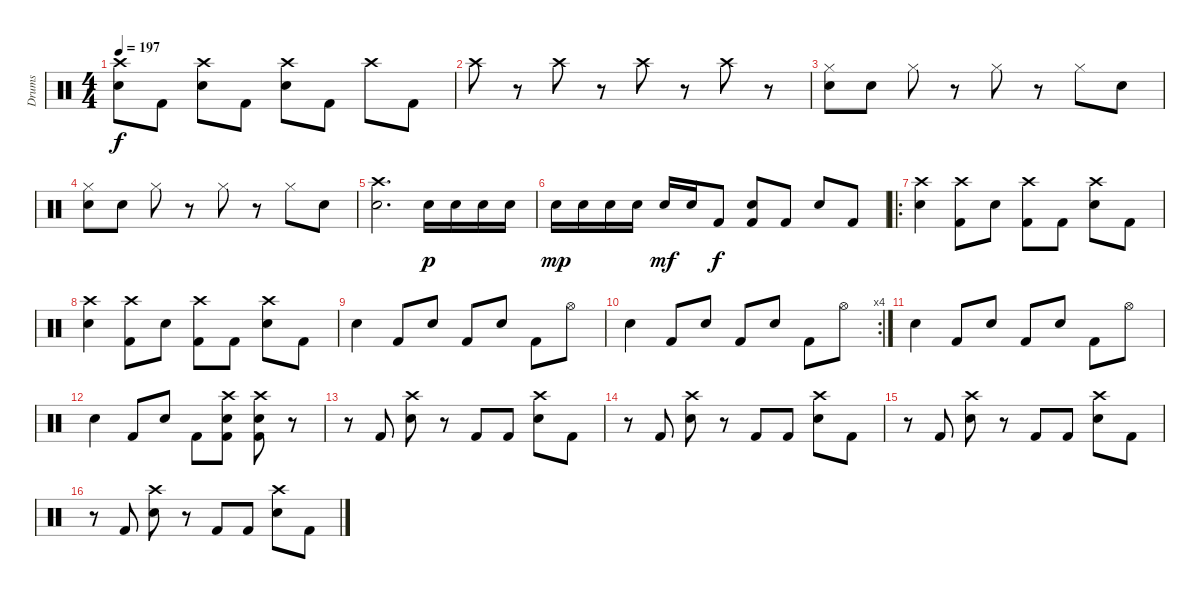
\track ("Drums" "Drums") {instrument percussion}
\staff {score}
\articulation defaults
\ts (4 4)
\tempo 197
\clef neutral
\ks c
("Crash high (hit)" "Electric Snare (hit)").8{dy f} "Kick (hit) 2".8 ("Crash high (hit)" "Electric Snare (hit)").8 "Kick (hit) 2".8 ("Crash high (hit)" "Electric Snare (hit)").8 "Kick (hit) 2".8 "Crash high (hit)".8 "Kick (hit) 2".8 |
"Crash high (hit)".8 r.8 "Crash high (hit)".8 r.8 "Crash high (hit)".8 r.8 "Crash high (hit)".8 r.8 |
("Hi-Hat (closed)" "Electric Snare (hit)").8 "Electric Snare (hit)".8 "Hi-Hat (closed)".8 r.8 "Hi-Hat (closed)".8 r.8 "Hi-Hat (closed)".8 "Electric Snare (hit)".8 |
("Hi-Hat (closed)" "Electric Snare (hit)").8 "Electric Snare (hit)".8 "Hi-Hat (closed)".8 r.8 "Hi-Hat (closed)".8 r.8 "Hi-Hat (closed)".8 "Electric Snare (hit)".8 |
("Crash high (hit)" "Electric Snare (hit)").2{d} "Electric Snare (hit)".16{dy p} "Electric Snare (hit)".16 "Electric Snare (hit)".16 "Electric Snare (hit)".16 |
"Electric Snare (hit)".16{dy mp} "Electric Snare (hit)".16 "Electric Snare (hit)".16 "Electric Snare (hit)".16 "Electric Snare (hit)".16{dy mf} "Electric Snare (hit)".16 "Kick (hit) 2".8{dy f} ("Electric Snare (hit)" "Kick (hit) 2").8 "Kick (hit) 2".8 "Electric Snare (hit)".8 "Kick (hit) 2".8 |
\ro
("Crash high (hit)" "Electric Snare (hit)").4 ("Crash high (hit)" "Kick (hit) 2").8 "Electric Snare (hit)".8 ("Crash high (hit)" "Kick (hit) 2").8 "Kick (hit) 2".8 ("Crash high (hit)" "Electric Snare (hit)").8 "Kick (hit) 2".8 |
("Crash high (hit)" "Electric Snare (hit)").4 ("Crash high (hit)" "Kick (hit) 2").8 "Electric Snare (hit)".8 ("Crash high (hit)" "Kick (hit) 2").8 "Kick (hit) 2".8 ("Crash high (hit)" "Electric Snare (hit)").8 "Kick (hit) 2".8 |
"Electric Snare (hit)".4 "Kick (hit) 2".8 "Electric Snare (hit)".8 "Kick (hit) 2".8 "Electric Snare (hit)".8 "Kick (hit) 2".8 "Hi-Hat (open)".8 |
\rc 4 "Electric Snare (hit)".4 "Kick (hit) 2".8 "Electric Snare (hit)".8 "Kick (hit) 2".8 "Electric Snare (hit)".8 "Kick (hit) 2".8 "Hi-Hat (open)".8
|
"Electric Snare (hit)".4 "Kick (hit) 2".8 "Electric Snare (hit)".8 "Kick (hit) 2".8 "Electric Snare (hit)".8 "Kick (hit) 2".8 "Hi-Hat (open)".8 |
"Electric Snare (hit)".4 "Kick (hit) 2".8 "Electric Snare (hit)".8 "Kick (hit) 2".8 ("Crash high (hit)" "Electric Snare (hit)" "Kick (hit) 2").8 ("Crash high (hit)" "Electric Snare (hit)" "Kick (hit) 2").8 r.8 |
r.8 "Kick (hit) 2".8 ("Crash high (hit)" "Electric Snare (hit)").8 r.8 "Kick (hit) 2".8 "Kick (hit) 2".8 ("Crash high (hit)" "Electric Snare (hit)").8 "Kick (hit) 2".8 |
r.8 "Kick (hit) 2".8 ("Crash high (hit)" "Electric Snare (hit)").8 r.8 "Kick (hit) 2".8 "Kick (hit) 2".8 ("Crash high (hit)" "Electric Snare (hit)").8 "Kick (hit) 2".8 |
r.8 "Kick (hit) 2".8 ("Crash high (hit)" "Electric Snare (hit)").8 r.8 "Kick (hit) 2".8 "Kick (hit) 2".8 ("Crash high (hit)" "Electric Snare (hit)").8 "Kick (hit) 2".8 |
r.8 "Kick (hit) 2".8 ("Crash high (hit)" "Electric Snare (hit)").8 r.8 "Kick (hit) 2".8 "Kick (hit) 2".8 ("Crash high (hit)" "Electric Snare (hit)").8 "Kick (hit) 2".8
